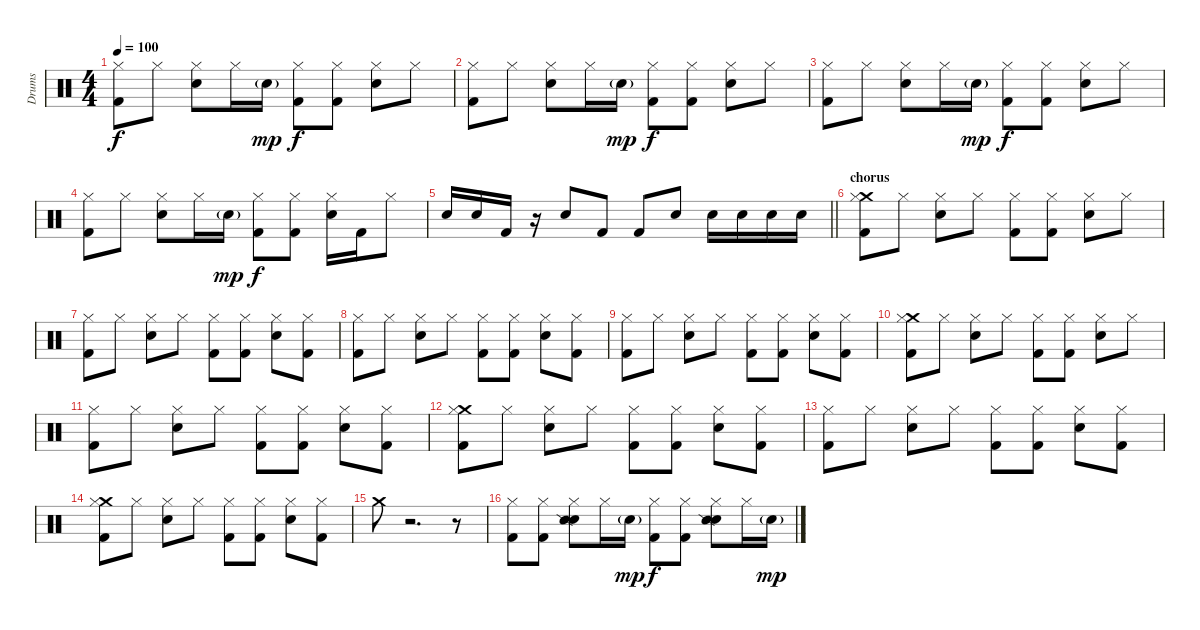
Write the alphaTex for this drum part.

\track ("Drums" "Drums") {instrument percussion}
\staff {score}
\articulation defaults
\ts (4 4)
\tempo 100
\clef neutral
\ks c
("Kick (hit) 2" "Hi-Hat (closed)").8{dy f} "Hi-Hat (closed)".8 ("Electric Snare (hit)" "Hi-Hat (closed)").8 "Hi-Hat (closed)".16 "Electric Snare (hit)"{g}.16{dy mp} ("Kick (hit) 2" "Hi-Hat (closed)").8{dy f} ("Kick (hit) 2" "Hi-Hat (closed)").8 ("Electric Snare (hit)" "Hi-Hat (closed)").8 "Hi-Hat (closed)".8 |
("Kick (hit) 2" "Hi-Hat (closed)").8 "Hi-Hat (closed)".8 ("Electric Snare (hit)" "Hi-Hat (closed)").8 "Hi-Hat (closed)".16 "Electric Snare (hit)"{g}.16{dy mp} ("Kick (hit) 2" "Hi-Hat (closed)").8{dy f} ("Kick (hit) 2" "Hi-Hat (closed)").8 ("Electric Snare (hit)" "Hi-Hat (closed)").8 "Hi-Hat (closed)".8 |
("Kick (hit) 2" "Hi-Hat (closed)").8 "Hi-Hat (closed)".8 ("Electric Snare (hit)" "Hi-Hat (closed)").8 "Hi-Hat (closed)".16 "Electric Snare (hit)"{g}.16{dy mp} ("Kick (hit) 2" "Hi-Hat (closed)").8{dy f} ("Kick (hit) 2" "Hi-Hat (closed)").8 ("Electric Snare (hit)" "Hi-Hat (closed)").8 "Hi-Hat (closed)".8 |
("Kick (hit) 2" "Hi-Hat (closed)").8 "Hi-Hat (closed)".8 ("Electric Snare (hit)" "Hi-Hat (closed)").8 "Hi-Hat (closed)".16 "Electric Snare (hit)"{g}.16{dy mp} ("Kick (hit) 2" "Hi-Hat (closed)").8{dy f} ("Kick (hit) 2" "Hi-Hat (closed)").8 ("Electric Snare (hit)" "Hi-Hat (closed)").16 "Kick (hit) 2".16 "Hi-Hat (closed)".8 |
\barLineRight lightlight "Electric Snare (hit)".16 "Electric Snare (hit)".16 "Kick (hit) 2".16
r.16 "Electric Snare (hit)".8 "Kick (hit) 2".8 "Kick (hit) 2".8 "Electric Snare (hit)".8 "Electric Snare (hit)".16 "Electric Snare (hit)".16 "Electric Snare (hit)".16 "Electric Snare (hit)".16 |
\section ("" "chorus")
("Crash medium (hit)" "Kick (hit) 2" "Hi-Hat (closed)").8 "Hi-Hat (closed)".8 ("Electric Snare (hit)" "Hi-Hat (closed)").8 "Hi-Hat (closed)".8 ("Kick (hit) 2" "Hi-Hat (closed)").8 ("Kick (hit) 2" "Hi-Hat (closed)").8 ("Electric Snare (hit)" "Hi-Hat (closed)").8 "Hi-Hat (closed)".8 |
("Kick (hit) 2" "Hi-Hat (closed)").8 "Hi-Hat (closed)".8 ("Electric Snare (hit)" "Hi-Hat (closed)").8 "Hi-Hat (closed)".8 ("Kick (hit) 2" "Hi-Hat (closed)").8 ("Kick (hit) 2" "Hi-Hat (closed)").8 ("Electric Snare (hit)" "Hi-Hat (closed)").8 ("Kick (hit) 2" "Hi-Hat (closed)").8 |
("Kick (hit) 2" "Hi-Hat (closed)").8 "Hi-Hat (closed)".8 ("Electric Snare (hit)" "Hi-Hat (closed)").8 "Hi-Hat (closed)".8 ("Kick (hit) 2" "Hi-Hat (closed)").8 ("Kick (hit) 2" "Hi-Hat (closed)").8 ("Electric Snare (hit)" "Hi-Hat (closed)").8 ("Kick (hit) 2" "Hi-Hat (closed)").8 |
("Kick (hit) 2" "Hi-Hat (closed)").8 "Hi-Hat (closed)".8 ("Electric Snare (hit)" "Hi-Hat (closed)").8 "Hi-Hat (closed)".8 ("Kick (hit) 2" "Hi-Hat (closed)").8 ("Kick (hit) 2" "Hi-Hat (closed)").8 ("Electric Snare (hit)" "Hi-Hat (closed)").8 ("Kick (hit) 2" "Hi-Hat (closed)").8 |
("Crash medium (hit)" "Kick (hit) 2" "Hi-Hat (closed)").8 "Hi-Hat (closed)".8 ("Electric Snare (hit)" "Hi-Hat (closed)").8 "Hi-Hat (closed)".8 ("Kick (hit) 2" "Hi-Hat (closed)").8 ("Kick (hit) 2" "Hi-Hat (closed)").8 ("Electric Snare (hit)" "Hi-Hat (closed)").8 "Hi-Hat (closed)".8 |
("Kick (hit) 2" "Hi-Hat (closed)").8 "Hi-Hat (closed)".8 ("Electric Snare (hit)" "Hi-Hat (closed)").8 "Hi-Hat (closed)".8 ("Kick (hit) 2" "Hi-Hat (closed)").8 ("Kick (hit) 2" "Hi-Hat (closed)").8 ("Electric Snare (hit)" "Hi-Hat (closed)").8 ("Kick (hit) 2" "Hi-Hat (closed)").8 |
("Crash medium (hit)" "Kick (hit) 2" "Hi-Hat (closed)").8 "Hi-Hat (closed)".8 ("Electric Snare (hit)" "Hi-Hat (closed)").8 "Hi-Hat (closed)".8 ("Kick (hit) 2" "Hi-Hat (closed)").8 ("Kick (hit) 2" "Hi-Hat (closed)").8 ("Electric Snare (hit)" "Hi-Hat (closed)").8 ("Kick (hit) 2" "Hi-Hat (closed)").8 |
("Kick (hit) 2" "Hi-Hat (closed)").8 "Hi-Hat (closed)".8 ("Electric Snare (hit)" "Hi-Hat (closed)").8 "Hi-Hat (closed)".8 ("Kick (hit) 2" "Hi-Hat (closed)").8 ("Kick (hit) 2" "Hi-Hat (closed)").8 ("Electric Snare (hit)" "Hi-Hat (closed)").8 ("Kick (hit) 2" "Hi-Hat (closed)").8 |
("Crash medium (hit)" "Kick (hit) 2" "Hi-Hat (closed)").8 "Hi-Hat (closed)".8 ("Electric Snare (hit)" "Hi-Hat (closed)").8 "Hi-Hat (closed)".8 ("Kick (hit) 2" "Hi-Hat (closed)").8 ("Kick (hit) 2" "Hi-Hat (closed)").8 ("Electric Snare (hit)" "Hi-Hat (closed)").8 ("Kick (hit) 2" "Hi-Hat (closed)").8 |
"Crash medium (hit)".8 r.2{d} r.8 |
("Hi-Hat (closed)" "Kick (hit) 2").8 ("Hi-Hat (closed)" "Kick (hit) 2").8 ("Hi-Hat (closed)" "Electric Snare (hit)" "Snare (side stick) 2").8 "Hi-Hat (closed)".16 "Electric Snare (hit)"{g}.16{dy mp} ("Hi-Hat (closed)" "Kick (hit) 2").8{dy f} ("Hi-Hat (closed)" "Kick (hit) 2").8 ("Hi-Hat (closed)" "Electric Snare (hit)" "Snare (side stick) 2").8 "Hi-Hat (closed)".16 "Electric Snare (hit)"{g}.16{dy mp}
